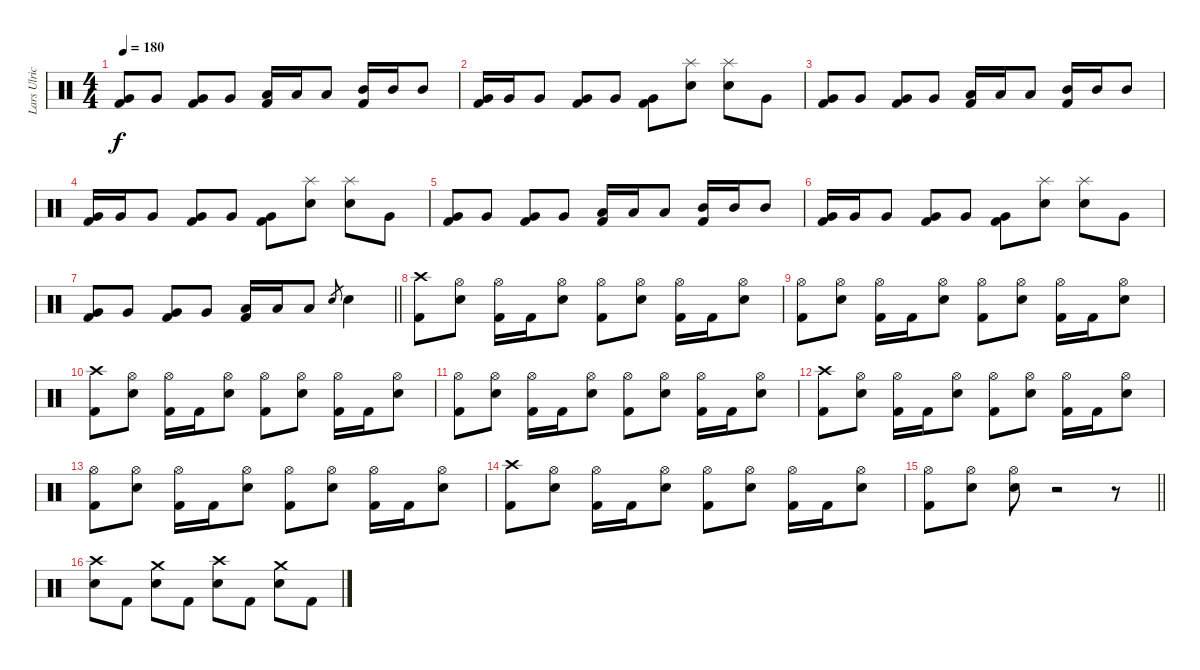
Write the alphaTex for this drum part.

\track ("Lars Ulrich" "Lars Ulric") {instrument percussion}
\staff {score}
\articulation defaults
\ts (4 4)
\tempo 180
\clef neutral
\ks c
("Very Low Tom (hit)" "Kick (hit) 2").8{dy f} "Very Low Tom (hit)".8 ("Very Low Tom (hit)" "Kick (hit) 2").8 "Very Low Tom (hit)".8 ("Low Tom (hit)" "Kick (hit) 2").16 "Low Tom (hit)".16 "Low Tom (hit)".8 ("Mid Tom (hit)" "Kick (hit) 2").16 "Mid Tom (hit)".16 "Mid Tom (hit)".8 |
("Very Low Tom (hit)" "Kick (hit) 2").16 "Very Low Tom (hit)".16 "Very Low Tom (hit)".8 ("Very Low Tom (hit)" "Kick (hit) 2").8 "Very Low Tom (hit)".8 ("Very Low Tom (hit)" "Kick (hit) 2").8 ("Splash (hit)" "Electric Snare (hit)").8 ("Splash (hit)" "Electric Snare (hit)").8 "Very Low Tom (hit)".8 |
("Very Low Tom (hit)" "Kick (hit) 2").8 "Very Low Tom (hit)".8 ("Very Low Tom (hit)" "Kick (hit) 2").8 "Very Low Tom (hit)".8 ("Low Tom (hit)" "Kick (hit) 2").16 "Low Tom (hit)".16 "Low Tom (hit)".8 ("Mid Tom (hit)" "Kick (hit) 2").16 "Mid Tom (hit)".16 "Mid Tom (hit)".8 |
("Very Low Tom (hit)" "Kick (hit) 2").16 "Very Low Tom (hit)".16 "Very Low Tom (hit)".8 ("Very Low Tom (hit)" "Kick (hit) 2").8 "Very Low Tom (hit)".8 ("Very Low Tom (hit)" "Kick (hit) 2").8 ("Splash (hit)" "Electric Snare (hit)").8 ("Splash (hit)" "Electric Snare (hit)").8 "Very Low Tom (hit)".8 |
("Very Low Tom (hit)" "Kick (hit) 2").8 "Very Low Tom (hit)".8 ("Very Low Tom (hit)" "Kick (hit) 2").8 "Very Low Tom (hit)".8 ("Low Tom (hit)" "Kick (hit) 2").16 "Low Tom (hit)".16 "Low Tom (hit)".8 ("Mid Tom (hit)" "Kick (hit) 2").16 "Mid Tom (hit)".16 "Mid Tom (hit)".8 |
("Very Low Tom (hit)" "Kick (hit) 2").16 "Very Low Tom (hit)".16 "Very Low Tom (hit)".8 ("Very Low Tom (hit)" "Kick (hit) 2").8 "Very Low Tom (hit)".8 ("Very Low Tom (hit)" "Kick (hit) 2").8 ("Splash (hit)" "Electric Snare (hit)").8 ("Splash (hit)" "Electric Snare (hit)").8 "Very Low Tom (hit)".8 |
\barLineRight lightlight
("Very Low Tom (hit)" "Kick (hit) 2").8 "Very Low Tom (hit)".8 ("Very Low Tom (hit)" "Kick (hit) 2").8 "Very Low Tom (hit)".8 ("Low Tom (hit)" "Kick (hit) 2").16 "Low Tom (hit)".16 "Low Tom (hit)".8 "Electric Snare (hit)".8{gr} "Electric Snare (hit)".4 |
\section ("" "")
("Crash high (hit)" "Kick (hit) 2").8 ("Hi-Hat (open)" "Electric Snare (hit)").8 ("Hi-Hat (open)" "Kick (hit) 2").16 "Kick (hit) 2".16 ("Hi-Hat (open)" "Electric Snare (hit)").8 ("Hi-Hat (open)" "Kick (hit) 2").8 ("Hi-Hat (open)" "Electric Snare (hit)").8 ("Hi-Hat (open)" "Kick (hit) 2").16 "Kick (hit) 2".16 ("Hi-Hat (open)" "Electric Snare (hit)").8 |
("Hi-Hat (open)" "Kick (hit) 2").8 ("Hi-Hat (open)" "Electric Snare (hit)").8 ("Hi-Hat (open)" "Kick (hit) 2").16 "Kick (hit) 2".16 ("Hi-Hat (open)" "Electric Snare (hit)").8 ("Hi-Hat (open)" "Kick (hit) 2").8 ("Hi-Hat (open)" "Electric Snare (hit)").8 ("Hi-Hat (open)" "Kick (hit) 2").16 "Kick (hit) 2".16 ("Hi-Hat (open)" "Electric Snare (hit)").8 |
("Crash high (hit)" "Kick (hit) 2").8 ("Hi-Hat (open)" "Electric Snare (hit)").8 ("Hi-Hat (open)" "Kick (hit) 2").16 "Kick (hit) 2".16 ("Hi-Hat (open)" "Electric Snare (hit)").8 ("Hi-Hat (open)" "Kick (hit) 2").8 ("Hi-Hat (open)" "Electric Snare (hit)").8 ("Hi-Hat (open)" "Kick (hit) 2").16 "Kick (hit) 2".16 ("Hi-Hat (open)" "Electric Snare (hit)").8 |
("Hi-Hat (open)" "Kick (hit) 2").8 ("Hi-Hat (open)" "Electric Snare (hit)").8 ("Hi-Hat (open)" "Kick (hit) 2").16 "Kick (hit) 2".16 ("Hi-Hat (open)" "Electric Snare (hit)").8 ("Hi-Hat (open)" "Kick (hit) 2").8 ("Hi-Hat (open)" "Electric Snare (hit)").8 ("Hi-Hat (open)" "Kick (hit) 2").16 "Kick (hit) 2".16 ("Hi-Hat (open)" "Electric Snare (hit)").8 |
("Crash high (hit)" "Kick (hit) 2").8 ("Hi-Hat (open)" "Electric Snare (hit)").8 ("Hi-Hat (open)" "Kick (hit) 2").16 "Kick (hit) 2".16 ("Hi-Hat (open)" "Electric Snare (hit)").8 ("Hi-Hat (open)" "Kick (hit) 2").8 ("Hi-Hat (open)" "Electric Snare (hit)").8 ("Hi-Hat (open)" "Kick (hit) 2").16 "Kick (hit) 2".16 ("Hi-Hat (open)" "Electric Snare (hit)").8 |
("Hi-Hat (open)" "Kick (hit) 2").8 ("Hi-Hat (open)" "Electric Snare (hit)").8 ("Hi-Hat (open)" "Kick (hit) 2").16 "Kick (hit) 2".16 ("Hi-Hat (open)" "Electric Snare (hit)").8 ("Hi-Hat (open)" "Kick (hit) 2").8 ("Hi-Hat (open)" "Electric Snare (hit)").8 ("Hi-Hat (open)" "Kick (hit) 2").16 "Kick (hit) 2".16 ("Hi-Hat (open)" "Electric Snare (hit)").8 |
("Crash high (hit)" "Kick (hit) 2").8 ("Hi-Hat (open)" "Electric Snare (hit)").8 ("Hi-Hat (open)" "Kick (hit) 2").16 "Kick (hit) 2".16 ("Hi-Hat (open)" "Electric Snare (hit)").8 ("Hi-Hat (open)" "Kick (hit) 2").8 ("Hi-Hat (open)" "Electric Snare (hit)").8 ("Hi-Hat (open)" "Kick (hit) 2").16 "Kick (hit) 2".16 ("Hi-Hat (open)" "Electric Snare (hit)").8 |
\barLineRight lightlight
("Hi-Hat (open)" "Kick (hit) 2").8 ("Hi-Hat (open)" "Electric Snare (hit)").8 ("Hi-Hat (open)" "Electric Snare (hit)").8 r.2 r.8 |
\section ("" "")
("Crash high (hit)" "Electric Snare (hit)").8 "Kick (hit) 2".8 ("Crash medium (hit)" "Electric Snare (hit)").8 "Kick (hit) 2".8 ("Crash high (hit)" "Electric Snare (hit)").8 "Kick (hit) 2".8 ("Crash medium (hit)" "Electric Snare (hit)").8 "Kick (hit) 2".8
